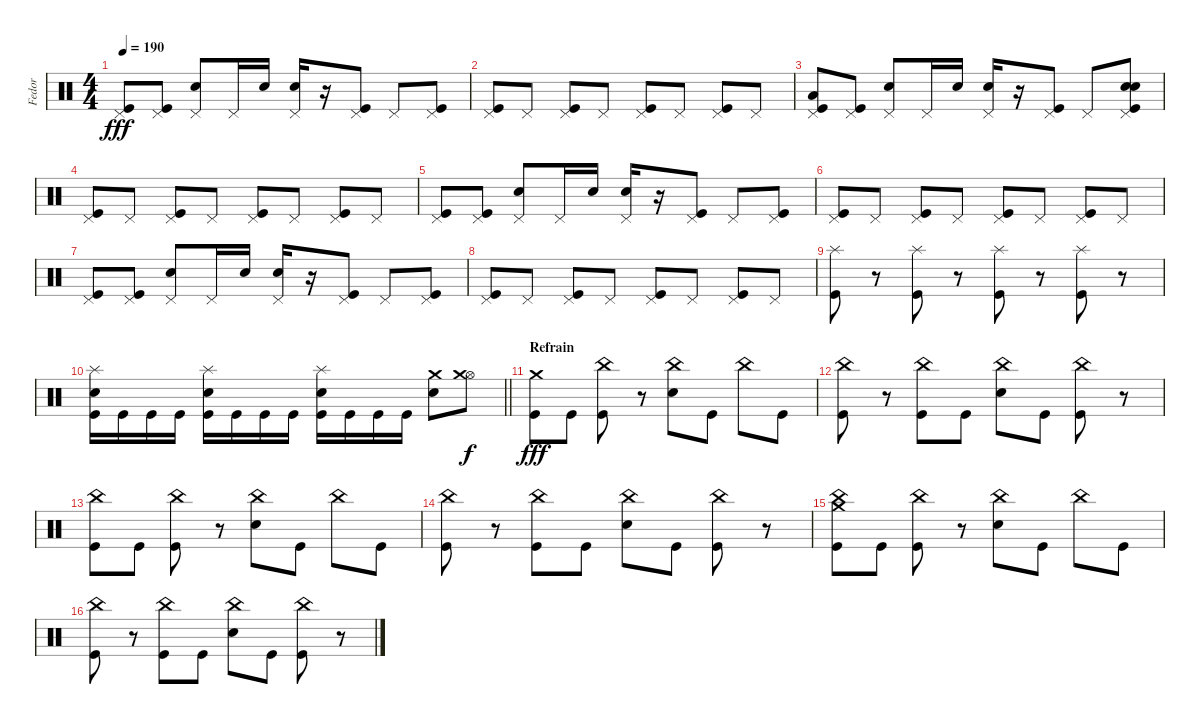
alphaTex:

\track ("Fedor" "Fedor") {instrument percussion}
\staff {score}
\articulation defaults
\ts (4 4)
\tempo 190
\clef neutral
\ks c
("Pedal Hi-Hat (hit)" "Kick (hit)").8{dy fff} ("Pedal Hi-Hat (hit)" "Kick (hit)").8 ("Pedal Hi-Hat (hit)" "Electric Snare (hit)").8 "Pedal Hi-Hat (hit)".16 "Electric Snare (hit)".16 ("Pedal Hi-Hat (hit)" "Electric Snare (hit)").16 r.16 ("Pedal Hi-Hat (hit)" "Kick (hit)").8 "Pedal Hi-Hat (hit)".8 ("Pedal Hi-Hat (hit)" "Kick (hit)").8 |
("Pedal Hi-Hat (hit)" "Kick (hit)").8 "Pedal Hi-Hat (hit)".8 ("Pedal Hi-Hat (hit)" "Kick (hit)").8 "Pedal Hi-Hat (hit)".8 ("Pedal Hi-Hat (hit)" "Kick (hit)").8 "Pedal Hi-Hat (hit)".8 ("Pedal Hi-Hat (hit)" "Kick (hit)").8 "Pedal Hi-Hat (hit)".8 |
("Low Floor Tom (hit)" "Pedal Hi-Hat (hit)" "Kick (hit)").8 ("Pedal Hi-Hat (hit)" "Kick (hit)").8 ("Pedal Hi-Hat (hit)" "Electric Snare (hit)").8 "Pedal Hi-Hat (hit)".16 "Electric Snare (hit)".16 ("Pedal Hi-Hat (hit)" "Electric Snare (hit)").16 r.16 ("Pedal Hi-Hat (hit)" "Kick (hit)").8 "Pedal Hi-Hat (hit)".8 ("Electric Snare (hit)" "Pedal Hi-Hat (hit)" "Snare (hit) 2" "Kick (hit)").8 |
("Pedal Hi-Hat (hit)" "Kick (hit)").8 "Pedal Hi-Hat (hit)".8 ("Pedal Hi-Hat (hit)" "Kick (hit)").8 "Pedal Hi-Hat (hit)".8 ("Pedal Hi-Hat (hit)" "Kick (hit)").8 "Pedal Hi-Hat (hit)".8 ("Pedal Hi-Hat (hit)" "Kick (hit)").8 "Pedal Hi-Hat (hit)".8 |
("Pedal Hi-Hat (hit)" "Kick (hit)").8 ("Pedal Hi-Hat (hit)" "Kick (hit)").8 ("Pedal Hi-Hat (hit)" "Electric Snare (hit)").8 "Pedal Hi-Hat (hit)".16 "Electric Snare (hit)".16 ("Pedal Hi-Hat (hit)" "Electric Snare (hit)").16 r.16 ("Pedal Hi-Hat (hit)" "Kick (hit)").8 "Pedal Hi-Hat (hit)".8 ("Pedal Hi-Hat (hit)" "Kick (hit)").8 |
("Pedal Hi-Hat (hit)" "Kick (hit)").8 "Pedal Hi-Hat (hit)".8 ("Pedal Hi-Hat (hit)" "Kick (hit)").8 "Pedal Hi-Hat (hit)".8 ("Pedal Hi-Hat (hit)" "Kick (hit)").8 "Pedal Hi-Hat (hit)".8 ("Pedal Hi-Hat (hit)" "Kick (hit)").8 "Pedal Hi-Hat (hit)".8 |
("Pedal Hi-Hat (hit)" "Kick (hit)").8 ("Pedal Hi-Hat (hit)" "Kick (hit)").8 ("Pedal Hi-Hat (hit)" "Electric Snare (hit)").8 "Pedal Hi-Hat (hit)".16 "Electric Snare (hit)".16 ("Pedal Hi-Hat (hit)" "Electric Snare (hit)").16 r.16 ("Pedal Hi-Hat (hit)" "Kick (hit)").8 "Pedal Hi-Hat (hit)".8 ("Pedal Hi-Hat (hit)" "Kick (hit)").8 |
("Pedal Hi-Hat (hit)" "Kick (hit)").8 "Pedal Hi-Hat (hit)".8 ("Pedal Hi-Hat (hit)" "Kick (hit)").8 "Pedal Hi-Hat (hit)".8 ("Pedal Hi-Hat (hit)" "Kick (hit)").8 "Pedal Hi-Hat (hit)".8 ("Pedal Hi-Hat (hit)" "Kick (hit)").8 "Pedal Hi-Hat (hit)".8 |
("Splash (hit)" "Kick (hit)").8 r.8 ("Splash (hit)" "Kick (hit)").8 r.8 ("Splash (hit)" "Kick (hit)").8 r.8 ("Splash (hit)" "Kick (hit)").8 r.8 |
\barLineRight lightlight
("Splash (hit)" "Snare (hit) 2" "Kick (hit)").16 "Kick (hit)".16 "Kick (hit)".16 "Kick (hit)".16 ("Splash (hit)" "Snare (hit) 2" "Kick (hit)").16 "Kick (hit)".16 "Kick (hit)".16 "Kick (hit)".16 ("Splash (hit)" "Snare (hit) 2" "Kick (hit)").16 "Kick (hit)".16 "Kick (hit)".16 "Kick (hit)".16 ("Crash medium (hit)" "Electric Snare (hit)").8 ("Hi-Hat (open)" "Crash medium (hit)").8{dy f} |
\section ("" "Refrain ")
("Crash medium (hit)" "Kick (hit)").8{dy fff} "Kick (hit)".8 ("China (hit)" "Kick (hit)").8 r.8 ("China (hit)" "Electric Snare (hit)").8 "Kick (hit)".8 "China (hit)".8 "Kick (hit)".8 |
("China (hit)" "Kick (hit)").8 r.8 ("China (hit)" "Kick (hit)").8 "Kick (hit)".8 ("China (hit)" "Electric Snare (hit)").8 "Kick (hit)".8 ("China (hit)" "Kick (hit)").8 r.8 |
("China (hit)" "Kick (hit)").8 "Kick (hit)".8 ("China (hit)" "Kick (hit)").8 r.8 ("China (hit)" "Electric Snare (hit)").8 "Kick (hit)".8 "China (hit)".8 "Kick (hit)".8 |
("China (hit)" "Kick (hit)").8 r.8 ("China (hit)" "Kick (hit)").8 "Kick (hit)".8 ("China (hit)" "Electric Snare (hit)").8 "Kick (hit)".8 ("China (hit)" "Kick (hit)").8 r.8 |
("Crash medium (hit)" "China (hit)" "Kick (hit)").8 "Kick (hit)".8 ("China (hit)" "Kick (hit)").8 r.8 ("China (hit)" "Electric Snare (hit)").8 "Kick (hit)".8 "China (hit)".8 "Kick (hit)".8 |
("China (hit)" "Kick (hit)").8 r.8 ("China (hit)" "Kick (hit)").8 "Kick (hit)".8 ("China (hit)" "Electric Snare (hit)").8 "Kick (hit)".8 ("China (hit)" "Kick (hit)").8 r.8
